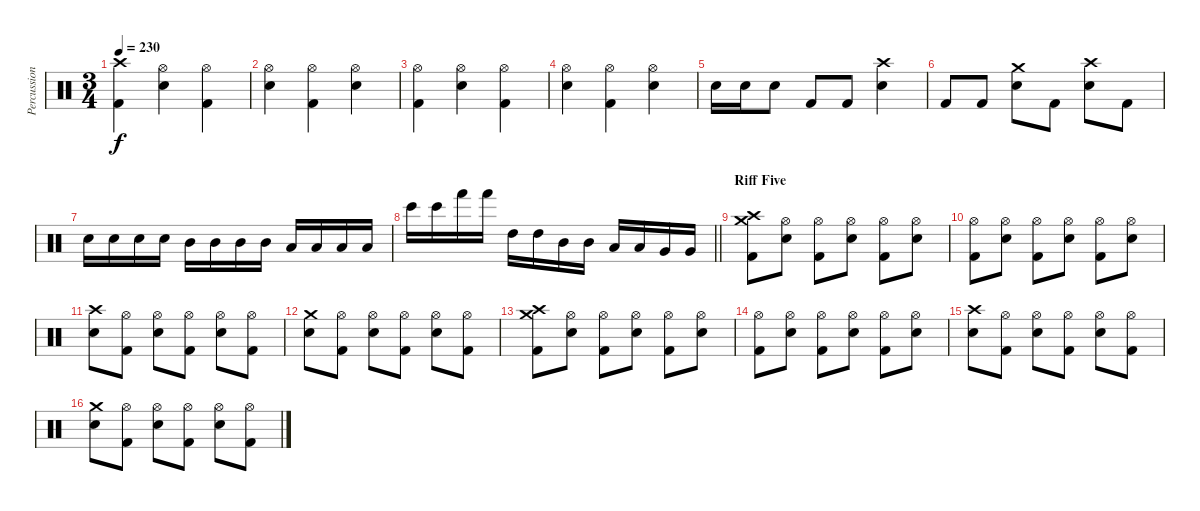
\track ("Percussion" "Percussion") {instrument percussion}
\staff {score}
\articulation defaults
\ts (3 4)
\tempo 230
\clef neutral
\ks c
("Crash high (hit)" "Kick (hit) 2").4{dy f} ("Hi-Hat (open)" "Electric Snare (hit)").4 ("Hi-Hat (open)" "Kick (hit) 2").4 |
("Hi-Hat (open)" "Electric Snare (hit)").4 ("Hi-Hat (open)" "Kick (hit) 2").4 ("Hi-Hat (open)" "Electric Snare (hit)").4 |
("Hi-Hat (open)" "Kick (hit) 2").4 ("Hi-Hat (open)" "Electric Snare (hit)").4 ("Hi-Hat (open)" "Kick (hit) 2").4 |
("Hi-Hat (open)" "Electric Snare (hit)").4 ("Hi-Hat (open)" "Kick (hit) 2").4 ("Hi-Hat (open)" "Electric Snare (hit)").4 |
"Electric Snare (hit)".16 "Electric Snare (hit)".16 "Electric Snare (hit)".8 "Kick (hit) 2".8 "Kick (hit) 2".8 ("Crash high (hit)" "Electric Snare (hit)").4 |
"Kick (hit) 2".8 "Kick (hit) 2".8 ("Crash medium (hit)" "Electric Snare (hit)").8 "Kick (hit) 2".8 ("Crash high (hit)" "Electric Snare (hit)").8 "Kick (hit) 2".8 |
"Electric Snare (hit)".16 "Electric Snare (hit)".16 "Electric Snare (hit)".16 "Electric Snare (hit)".16 "Mid Tom (hit)".16 "Mid Tom (hit)".16 "Mid Tom (hit)".16 "Mid Tom (hit)".16 "Low Tom (hit)".16 "Low Tom (hit)".16 "Low Tom (hit)".16 "Low Tom (hit)".16 |
\barLineRight lightlight "Bongo High (hit)".16 "Bongo High (hit)".16 "Hand (hit)".16 "Hand (hit)".16 "High Tom (hit)".16 "High Tom (hit)".16 "Mid Tom (hit)".16 "Mid Tom (hit)".16 "Low Tom (hit)".16 "Low Tom (hit)".16 "Very Low Tom (hit)".16 "Very Low Tom (hit)".16
|
\section ("" "Riff Five")
("Crash medium (hit)" "Crash high (hit)" "Kick (hit) 2").8 ("Hi-Hat (open)" "Electric Snare (hit)").8 ("Hi-Hat (open)" "Kick (hit) 2").8 ("Hi-Hat (open)" "Electric Snare (hit)").8 ("Hi-Hat (open)" "Kick (hit) 2").8 ("Hi-Hat (open)" "Electric Snare (hit)").8 |
("Hi-Hat (open)" "Kick (hit) 2").8 ("Hi-Hat (open)" "Electric Snare (hit)").8 ("Hi-Hat (open)" "Kick (hit) 2").8 ("Hi-Hat (open)" "Electric Snare (hit)").8 ("Hi-Hat (open)" "Kick (hit) 2").8 ("Hi-Hat (open)" "Electric Snare (hit)").8 |
("Crash high (hit)" "Electric Snare (hit)").8 ("Hi-Hat (open)" "Kick (hit) 2").8 ("Hi-Hat (open)" "Electric Snare (hit)").8 ("Hi-Hat (open)" "Kick (hit) 2").8 ("Hi-Hat (open)" "Electric Snare (hit)").8 ("Hi-Hat (open)" "Kick (hit) 2").8 |
("Crash medium (hit)" "Electric Snare (hit)").8 ("Hi-Hat (open)" "Kick (hit) 2").8 ("Hi-Hat (open)" "Electric Snare (hit)").8 ("Hi-Hat (open)" "Kick (hit) 2").8 ("Hi-Hat (open)" "Electric Snare (hit)").8 ("Hi-Hat (open)" "Kick (hit) 2").8 |
("Crash medium (hit)" "Crash high (hit)" "Kick (hit) 2").8 ("Hi-Hat (open)" "Electric Snare (hit)").8 ("Hi-Hat (open)" "Kick (hit) 2").8 ("Hi-Hat (open)" "Electric Snare (hit)").8 ("Hi-Hat (open)" "Kick (hit) 2").8 ("Hi-Hat (open)" "Electric Snare (hit)").8 |
("Hi-Hat (open)" "Kick (hit) 2").8 ("Hi-Hat (open)" "Electric Snare (hit)").8 ("Hi-Hat (open)" "Kick (hit) 2").8 ("Hi-Hat (open)" "Electric Snare (hit)").8 ("Hi-Hat (open)" "Kick (hit) 2").8 ("Hi-Hat (open)" "Electric Snare (hit)").8 |
("Crash high (hit)" "Electric Snare (hit)").8 ("Hi-Hat (open)" "Kick (hit) 2").8 ("Hi-Hat (open)" "Electric Snare (hit)").8 ("Hi-Hat (open)" "Kick (hit) 2").8 ("Hi-Hat (open)" "Electric Snare (hit)").8 ("Hi-Hat (open)" "Kick (hit) 2").8 |
("Crash medium (hit)" "Electric Snare (hit)").8 ("Hi-Hat (open)" "Kick (hit) 2").8 ("Hi-Hat (open)" "Electric Snare (hit)").8 ("Hi-Hat (open)" "Kick (hit) 2").8 ("Hi-Hat (open)" "Electric Snare (hit)").8 ("Hi-Hat (open)" "Kick (hit) 2").8
